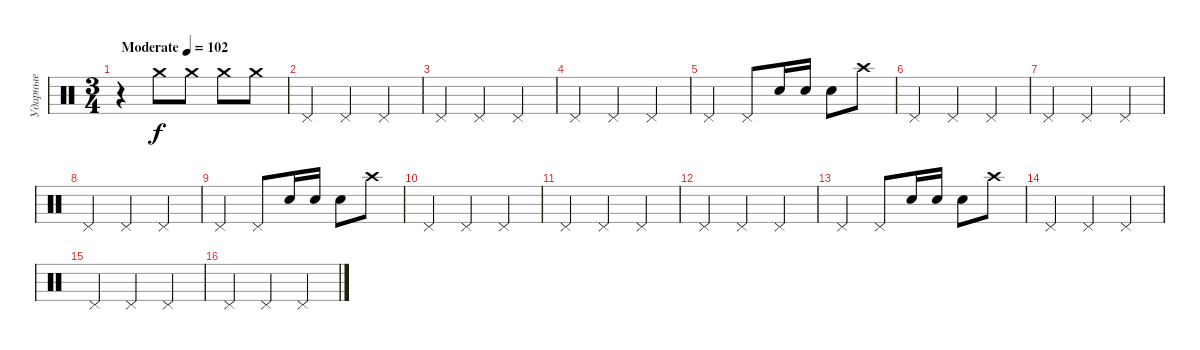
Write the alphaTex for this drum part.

\track ("Ударные" "Ударные") {instrument percussion}
\staff {score}
\articulation defaults
\ts (3 4)
\tempo (102 "Moderate")
\clef neutral
\ks c
r.4{dy f} "Crash medium (hit)".8 "Crash medium (hit)".8 "Crash medium (hit)".8 "Crash medium (hit)".8 |
"Pedal Hi-Hat (hit)".4 "Pedal Hi-Hat (hit)".4 "Pedal Hi-Hat (hit)".4 |
"Pedal Hi-Hat (hit)".4 "Pedal Hi-Hat (hit)".4 "Pedal Hi-Hat (hit)".4 |
"Pedal Hi-Hat (hit)".4 "Pedal Hi-Hat (hit)".4 "Pedal Hi-Hat (hit)".4 |
"Pedal Hi-Hat (hit)".4 "Pedal Hi-Hat (hit)".8 "Snare (hit) 2".16 "Snare (hit) 2".16 "Snare (hit) 2".8 "Crash high (hit)".8 |
"Pedal Hi-Hat (hit)".4 "Pedal Hi-Hat (hit)".4 "Pedal Hi-Hat (hit)".4 |
"Pedal Hi-Hat (hit)".4 "Pedal Hi-Hat (hit)".4 "Pedal Hi-Hat (hit)".4 |
"Pedal Hi-Hat (hit)".4 "Pedal Hi-Hat (hit)".4 "Pedal Hi-Hat (hit)".4 |
"Pedal Hi-Hat (hit)".4 "Pedal Hi-Hat (hit)".8 "Snare (hit) 2".16 "Snare (hit) 2".16 "Snare (hit) 2".8 "Crash high (hit)".8 |
"Pedal Hi-Hat (hit)".4 "Pedal Hi-Hat (hit)".4 "Pedal Hi-Hat (hit)".4 |
"Pedal Hi-Hat (hit)".4 "Pedal Hi-Hat (hit)".4 "Pedal Hi-Hat (hit)".4 |
"Pedal Hi-Hat (hit)".4 "Pedal Hi-Hat (hit)".4 "Pedal Hi-Hat (hit)".4 |
"Pedal Hi-Hat (hit)".4 "Pedal Hi-Hat (hit)".8 "Snare (hit) 2".16 "Snare (hit) 2".16 "Snare (hit) 2".8 "Crash high (hit)".8 |
"Pedal Hi-Hat (hit)".4 "Pedal Hi-Hat (hit)".4 "Pedal Hi-Hat (hit)".4 |
"Pedal Hi-Hat (hit)".4 "Pedal Hi-Hat (hit)".4 "Pedal Hi-Hat (hit)".4 |
"Pedal Hi-Hat (hit)".4 "Pedal Hi-Hat (hit)".4 "Pedal Hi-Hat (hit)".4
